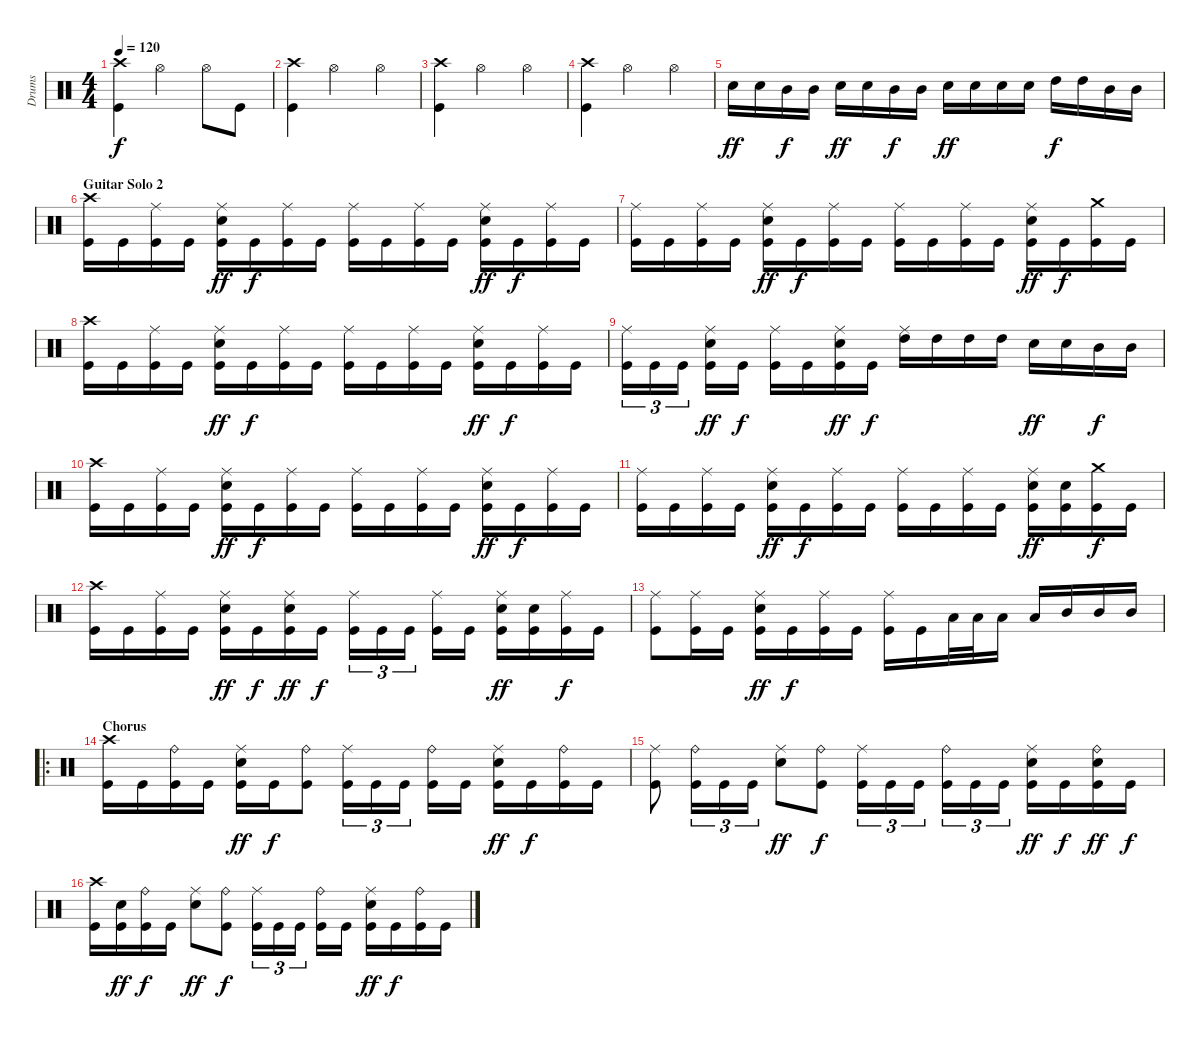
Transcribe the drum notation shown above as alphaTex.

\track ("Drums" "Drums") {instrument percussion}
\staff {score}
\articulation defaults
\ts (4 4)
\tempo 120
\clef neutral
\ks c
("Crash high (hit)" "Kick (hit)").4{dy f} "Hi-Hat (open)".2 "Hi-Hat (open)".8 "Kick (hit)".8 |
("Crash high (hit)" "Kick (hit)").4 "Hi-Hat (open)".2 "Hi-Hat (open)".4 |
("Crash high (hit)" "Kick (hit)").4 "Hi-Hat (open)".2 "Hi-Hat (open)".4 |
("Crash high (hit)" "Kick (hit)").4 "Hi-Hat (open)".2 "Hi-Hat (open)".4 |
"Electric Snare (hit)".16{dy ff} "Electric Snare (hit)".16 "Mid Tom (hit)".16{dy f} "Mid Tom (hit)".16 "Electric Snare (hit)".16{dy ff} "Electric Snare (hit)".16 "Mid Tom (hit)".16{dy f} "Mid Tom (hit)".16 "Electric Snare (hit)".16{dy ff} "Electric Snare (hit)".16 "Electric Snare (hit)".16 "Electric Snare (hit)".16 "High Tom (hit)".16{dy f} "High Tom (hit)".16 "Mid Tom (hit)".16 "Mid Tom (hit)".16 |
\section ("" "Guitar Solo 2")
("Crash high (hit)" "Kick (hit)").16 "Kick (hit)".16 ("Ride (middle)" "Kick (hit)").16 "Kick (hit)".16 ("Ride (middle)" "Electric Snare (hit)" "Kick (hit)").16{dy ff} "Kick (hit)".16{dy f} ("Ride (middle)" "Kick (hit)").16 "Kick (hit)".16 ("Ride (middle)" "Kick (hit)").16 "Kick (hit)".16 ("Ride (middle)" "Kick (hit)").16 "Kick (hit)".16 ("Ride (middle)" "Electric Snare (hit)" "Kick (hit)").16{dy ff} "Kick (hit)".16{dy f} ("Ride (middle)" "Kick (hit)").16 "Kick (hit)".16 |
("Ride (middle)" "Kick (hit)").16 "Kick (hit)".16 ("Ride (middle)" "Kick (hit)").16 "Kick (hit)".16 ("Ride (middle)" "Electric Snare (hit)" "Kick (hit)").16{dy ff} "Kick (hit)".16{dy f} ("Ride (middle)" "Kick (hit)").16 "Kick (hit)".16 ("Ride (middle)" "Kick (hit)").16 "Kick (hit)".16 ("Ride (middle)" "Kick (hit)").16 "Kick (hit)".16 ("Ride (middle)" "Electric Snare (hit)" "Kick (hit)").16{dy ff} "Kick (hit)".16{dy f} ("Crash medium (hit)" "Kick (hit)").16 "Kick (hit)".16 |
("Crash high (hit)" "Kick (hit)").16 "Kick (hit)".16 ("Ride (middle)" "Kick (hit)").16 "Kick (hit)".16 ("Ride (middle)" "Electric Snare (hit)" "Kick (hit)").16{dy ff} "Kick (hit)".16{dy f} ("Ride (middle)" "Kick (hit)").16 "Kick (hit)".16 ("Ride (middle)" "Kick (hit)").16 "Kick (hit)".16 ("Ride (middle)" "Kick (hit)").16 "Kick (hit)".16 ("Ride (middle)" "Electric Snare (hit)" "Kick (hit)").16{dy ff} "Kick (hit)".16{dy f} ("Ride (middle)" "Kick (hit)").16 "Kick (hit)".16 |
("Ride (middle)" "Kick (hit)").16{tu (3 2)} "Kick (hit)".16{tu (3 2)} "Kick (hit)".16{tu (3 2)} ("Ride (middle)" "Electric Snare (hit)" "Kick (hit)").16{dy ff} "Kick (hit)".16{dy f} ("Ride (middle)" "Kick (hit)").16 "Kick (hit)".16 ("Ride (middle)" "Electric Snare (hit)" "Kick (hit)").16{dy ff} "Kick (hit)".16{dy f} ("Ride (middle)" "High Tom (hit)").16 "High Tom (hit)".16 "High Tom (hit)".16 "High Tom (hit)".16 "Electric Snare (hit)".16{dy ff} "Electric Snare (hit)".16 "Mid Tom (hit)".16{dy f} "Mid Tom (hit)".16 |
("Crash high (hit)" "Kick (hit)").16 "Kick (hit)".16 ("Ride (middle)" "Kick (hit)").16 "Kick (hit)".16 ("Ride (middle)" "Electric Snare (hit)" "Kick (hit)").16{dy ff} "Kick (hit)".16{dy f} ("Ride (middle)" "Kick (hit)").16 "Kick (hit)".16 ("Ride (middle)" "Kick (hit)").16 "Kick (hit)".16 ("Ride (middle)" "Kick (hit)").16 "Kick (hit)".16 ("Ride (middle)" "Electric Snare (hit)" "Kick (hit)").16{dy ff} "Kick (hit)".16{dy f} ("Ride (middle)" "Kick (hit)").16 "Kick (hit)".16 |
("Ride (middle)" "Kick (hit)").16 "Kick (hit)".16 ("Ride (middle)" "Kick (hit)").16 "Kick (hit)".16 ("Ride (middle)" "Electric Snare (hit)" "Kick (hit)").16{dy ff} "Kick (hit)".16{dy f} ("Ride (middle)" "Kick (hit)").16 "Kick (hit)".16 ("Ride (middle)" "Kick (hit)").16 "Kick (hit)".16 ("Ride (middle)" "Kick (hit)").16 "Kick (hit)".16 ("Ride (middle)" "Electric Snare (hit)" "Kick (hit)").16{dy ff} ("Electric Snare (hit)" "Kick (hit)").16 ("Crash medium (hit)" "Kick (hit)").16{dy f} "Kick (hit)".16 |
("Crash high (hit)" "Kick (hit)").16 "Kick (hit)".16 ("Ride (middle)" "Kick (hit)").16 "Kick (hit)".16 ("Ride (middle)" "Electric Snare (hit)" "Kick (hit)").16{dy ff} "Kick (hit)".16{dy f} ("Ride (middle)" "Electric Snare (hit)" "Kick (hit)").16{dy ff} "Kick (hit)".16{dy f} ("Ride (middle)" "Kick (hit)").16{tu (3 2)} "Kick (hit)".16{tu (3 2)} "Kick (hit)".16{tu (3 2)} ("Ride (middle)" "Kick (hit)").16 "Kick (hit)".16 ("Ride (middle)" "Electric Snare (hit)" "Kick (hit)").16{dy ff} ("Electric Snare (hit)" "Kick (hit)").16 ("Ride (middle)" "Kick (hit)").16{dy f} "Kick (hit)".16 |
("Ride (middle)" "Kick (hit)").8 ("Ride (middle)" "Kick (hit)").16 "Kick (hit)".16 ("Ride (middle)" "Electric Snare (hit)" "Kick (hit)").16{dy ff} "Kick (hit)".16{dy f} ("Ride (middle)" "Kick (hit)").16 "Kick (hit)".16 ("Ride (middle)" "Kick (hit)").16 "Kick (hit)".16 "Low Tom (hit)".32 "Low Tom (hit)".32 "Low Tom (hit)".16 "Low Tom (hit)".16 "Mid Tom (hit)".16 "Mid Tom (hit)".16 "Mid Tom (hit)".16 |
\ro
\section ("" "Chorus")
("Crash high (hit)" "Kick (hit)").16 "Kick (hit)".16 ("Ride (bell)" "Kick (hit)").16 "Kick (hit)".16 ("Ride (middle)" "Electric Snare (hit)" "Kick (hit)").16{dy ff} "Kick (hit)".16{dy f} ("Ride (bell)" "Kick (hit)").8 ("Ride (middle)" "Kick (hit)").16{tu (3 2)} "Kick (hit)".16{tu (3 2)} "Kick (hit)".16{tu (3 2)} ("Ride (bell)" "Kick (hit)").16 "Kick (hit)".16 ("Ride (middle)" "Electric Snare (hit)" "Kick (hit)").16{dy ff} "Kick (hit)".16{dy f} ("Ride (bell)" "Kick (hit)").16 "Kick (hit)".16 |
("Ride (middle)" "Kick (hit)").8 ("Ride (bell)" "Kick (hit)").16{tu (3 2)} "Kick (hit)".16{tu (3 2)} "Kick (hit)".16{tu (3 2)} ("Ride (middle)" "Electric Snare (hit)").8{dy ff} ("Ride (bell)" "Kick (hit)").8{dy f} ("Ride (middle)" "Kick (hit)").16{tu (3 2)} "Kick (hit)".16{tu (3 2)} "Kick (hit)".16{tu (3 2)} ("Ride (bell)" "Kick (hit)").16{tu (3 2)} "Kick (hit)".16{tu (3 2)} "Kick (hit)".16{tu (3 2)} ("Ride (middle)" "Electric Snare (hit)" "Kick (hit)").16{dy ff} "Kick (hit)".16{dy f} ("Ride (bell)" "Electric Snare (hit)" "Kick (hit)").16{dy ff} "Kick (hit)".16{dy f} |
("Crash high (hit)" "Kick (hit)").16 ("Electric Snare (hit)" "Kick (hit)").16{dy ff} ("Ride (bell)" "Kick (hit)").16{dy f} "Kick (hit)".16 ("Ride (middle)" "Electric Snare (hit)").8{dy ff} ("Ride (bell)" "Kick (hit)").8{dy f} ("Ride (middle)" "Kick (hit)").16{tu (3 2)} "Kick (hit)".16{tu (3 2)} "Kick (hit)".16{tu (3 2)} ("Ride (bell)" "Kick (hit)").16 "Kick (hit)".16 ("Ride (middle)" "Electric Snare (hit)" "Kick (hit)").16{dy ff} "Kick (hit)".16{dy f} ("Ride (bell)" "Kick (hit)").16 "Kick (hit)".16
